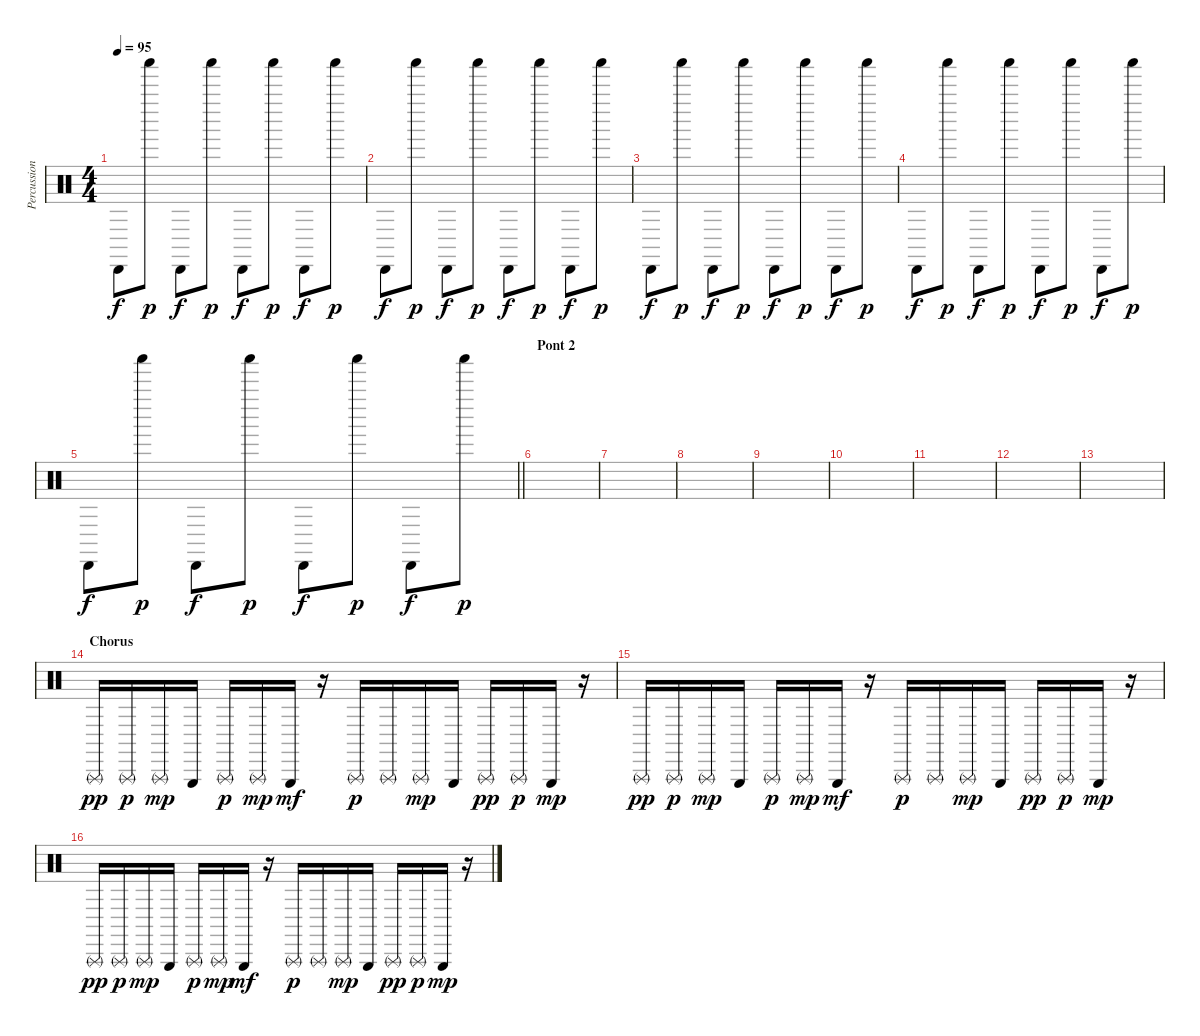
\track ("Percussions" "Percussion") {instrument percussion}
\staff {score}
\articulation defaults
\ts (4 4)
\tempo 95
\clef neutral
\ks c "Cabasa (hit)".8{dy f} "Shaker (hit)".8{dy p} "Cabasa (hit)".8{dy f} "Shaker (hit)".8{dy p} "Cabasa (hit)".8{dy f} "Shaker (hit)".8{dy p} "Cabasa (hit)".8{dy f} "Shaker (hit)".8{dy p}
|
"Cabasa (hit)".8{dy f} "Shaker (hit)".8{dy p} "Cabasa (hit)".8{dy f} "Shaker (hit)".8{dy p} "Cabasa (hit)".8{dy f} "Shaker (hit)".8{dy p} "Cabasa (hit)".8{dy f} "Shaker (hit)".8{dy p} |
"Cabasa (hit)".8{dy f} "Shaker (hit)".8{dy p} "Cabasa (hit)".8{dy f} "Shaker (hit)".8{dy p} "Cabasa (hit)".8{dy f} "Shaker (hit)".8{dy p} "Cabasa (hit)".8{dy f} "Shaker (hit)".8{dy p} |
"Cabasa (hit)".8{dy f} "Shaker (hit)".8{dy p} "Cabasa (hit)".8{dy f} "Shaker (hit)".8{dy p} "Cabasa (hit)".8{dy f} "Shaker (hit)".8{dy p} "Cabasa (hit)".8{dy f} "Shaker (hit)".8{dy p} |
\barLineRight lightlight "Cabasa (hit)".8{dy f} "Shaker (hit)".8{dy p} "Cabasa (hit)".8{dy f} "Shaker (hit)".8{dy p} "Cabasa (hit)".8{dy f} "Shaker (hit)".8{dy p} "Cabasa (hit)".8{dy f} "Shaker (hit)".8{dy p}
|
\section ("" "Pont 2")
|
|
|
|
|
|
|
|
\section ("" "Chorus")
"Triangle (rnute)".16{dy pp} "Triangle (rnute)".16{dy p} "Triangle (rnute)".16{dy mp} "Triangle (hit)".16 "Triangle (rnute)".16{dy p} "Triangle (rnute)".16{dy mp} "Triangle (hit)".16{dy mf} r.16 "Triangle (rnute)".16{dy p} "Triangle (rnute)".16 "Triangle (rnute)".16{dy mp} "Triangle (hit)".16 "Triangle (rnute)".16{dy pp} "Triangle (rnute)".16{dy p} "Triangle (hit)".16{dy mp} r.16 |
"Triangle (rnute)".16{dy pp} "Triangle (rnute)".16{dy p} "Triangle (rnute)".16{dy mp} "Triangle (hit)".16 "Triangle (rnute)".16{dy p} "Triangle (rnute)".16{dy mp} "Triangle (hit)".16{dy mf} r.16 "Triangle (rnute)".16{dy p} "Triangle (rnute)".16 "Triangle (rnute)".16{dy mp} "Triangle (hit)".16 "Triangle (rnute)".16{dy pp} "Triangle (rnute)".16{dy p} "Triangle (hit)".16{dy mp} r.16 |
"Triangle (rnute)".16{dy pp} "Triangle (rnute)".16{dy p} "Triangle (rnute)".16{dy mp} "Triangle (hit)".16 "Triangle (rnute)".16{dy p} "Triangle (rnute)".16{dy mp} "Triangle (hit)".16{dy mf} r.16 "Triangle (rnute)".16{dy p} "Triangle (rnute)".16 "Triangle (rnute)".16{dy mp} "Triangle (hit)".16 "Triangle (rnute)".16{dy pp} "Triangle (rnute)".16{dy p} "Triangle (hit)".16{dy mp} r.16
